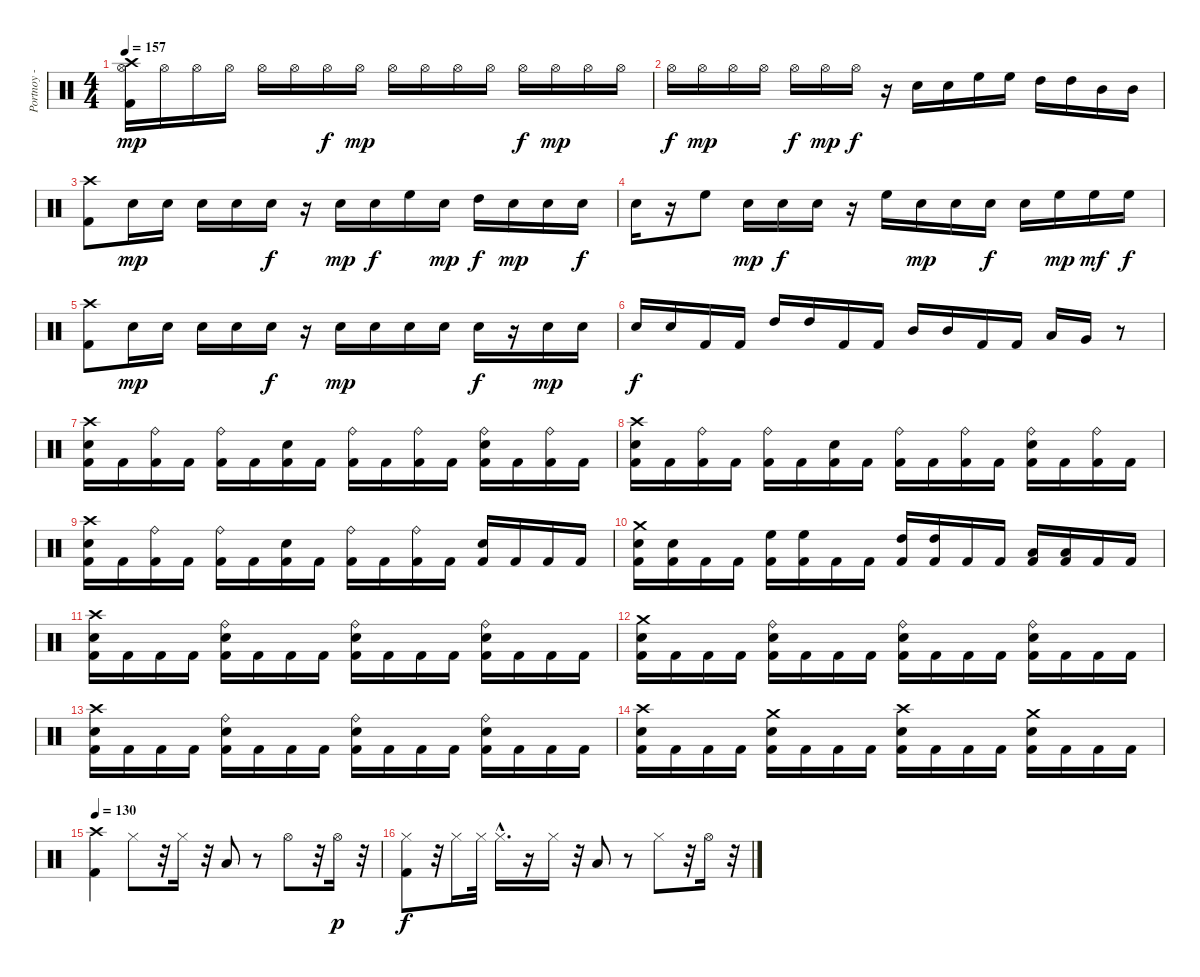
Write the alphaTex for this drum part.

\track ("Portnoy - Drums" "Portnoy - ") {instrument percussion}
\staff {score}
\articulation defaults
\ts (4 4)
\tempo 157
\clef neutral
\ks c
("Hi-Hat (open)" "Crash high (hit)" "Kick (hit) 2").16{dy mp} "Hi-Hat (open)".16 "Hi-Hat (open)".16 "Hi-Hat (open)".16 "Hi-Hat (open)".16 "Hi-Hat (open)".16 "Hi-Hat (open)".16{dy f} "Hi-Hat (open)".16{dy mp} "Hi-Hat (open)".16 "Hi-Hat (open)".16 "Hi-Hat (open)".16 "Hi-Hat (open)".16 "Hi-Hat (open)".16{dy f} "Hi-Hat (open)".16{dy mp} "Hi-Hat (open)".16 "Hi-Hat (open)".16 |
"Hi-Hat (open)".16{dy f} "Hi-Hat (open)".16{dy mp} "Hi-Hat (open)".16 "Hi-Hat (open)".16 "Hi-Hat (open)".16{dy f} "Hi-Hat (open)".16{dy mp} "Hi-Hat (open)".16{dy f} r.16 "Electric Snare (hit)".16 "Electric Snare (hit)".16 "High Floor Tom (hit)".16 "High Floor Tom (hit)".16 "High Tom (hit)".16 "High Tom (hit)".16 "Mid Tom (hit)".16 "Mid Tom (hit)".16 |
("Crash high (hit)" "Kick (hit) 2").8 "Electric Snare (hit)".16{dy mp} "Electric Snare (hit)".16 "Electric Snare (hit)".16 "Electric Snare (hit)".16 "Electric Snare (hit)".16{dy f} r.16 "Electric Snare (hit)".16{dy mp} "Electric Snare (hit)".16{dy f} "High Floor Tom (hit)".16 "Electric Snare (hit)".16{dy mp} "High Tom (hit)".16{dy f} "Electric Snare (hit)".16{dy mp} "Electric Snare (hit)".16 "Electric Snare (hit)".16{dy f} |
"Electric Snare (hit)".16 r.16 "High Floor Tom (hit)".8 "Electric Snare (hit)".16{dy mp} "Electric Snare (hit)".16{dy f} "Electric Snare (hit)".16 r.16 "High Floor Tom (hit)".16 "Electric Snare (hit)".16{dy mp} "Electric Snare (hit)".16 "Electric Snare (hit)".16{dy f} "Electric Snare (hit)".16 "High Floor Tom (hit)".16{dy mp} "High Floor Tom (hit)".16{dy mf} "High Floor Tom (hit)".16{dy f} |
("Kick (hit) 2" "Crash high (hit)").8 "Electric Snare (hit)".16{dy mp} "Electric Snare (hit)".16 "Electric Snare (hit)".16 "Electric Snare (hit)".16 "Electric Snare (hit)".16{dy f} r.16 "Electric Snare (hit)".16{dy mp} "Electric Snare (hit)".16 "Electric Snare (hit)".16 "Electric Snare (hit)".16 "Electric Snare (hit)".16{dy f} r.16 "Electric Snare (hit)".16{dy mp} "Electric Snare (hit)".16 |
"Electric Snare (hit)".16{dy f} "Electric Snare (hit)".16 "Kick (hit) 2".16 "Kick (hit) 2".16 "High Tom (hit)".16 "High Tom (hit)".16 "Kick (hit) 2".16 "Kick (hit) 2".16 "Mid Tom (hit)".16 "Mid Tom (hit)".16 "Kick (hit) 2".16 "Kick (hit) 2".16 "Low Tom (hit)".16 "Very Low Tom (hit)".16 r.8 |
("Crash high (hit)" "Electric Snare (hit)" "Kick (hit) 2").16 "Kick (hit) 2".16 ("Kick (hit) 2" "Ride (bell)").16 "Kick (hit) 2".16 ("Kick (hit) 2" "Ride (bell)").16 "Kick (hit) 2".16 ("Kick (hit) 2" "Electric Snare (hit)").16 "Kick (hit) 2".16 ("Kick (hit) 2" "Ride (bell)").16 "Kick (hit) 2".16 ("Kick (hit) 2" "Ride (bell)").16 "Kick (hit) 2".16 ("Kick (hit) 2" "Electric Snare (hit)" "Ride (bell)").16 "Kick (hit) 2".16 ("Kick (hit) 2" "Ride (bell)").16 "Kick (hit) 2".16 |
("Kick (hit) 2" "Electric Snare (hit)" "Crash high (hit)").16 "Kick (hit) 2".16 ("Kick (hit) 2" "Ride (bell)").16 "Kick (hit) 2".16 ("Kick (hit) 2" "Ride (bell)").16 "Kick (hit) 2".16 ("Kick (hit) 2" "Electric Snare (hit)").16 "Kick (hit) 2".16 ("Kick (hit) 2" "Ride (bell)").16 "Kick (hit) 2".16 ("Kick (hit) 2" "Ride (bell)").16 "Kick (hit) 2".16 ("Kick (hit) 2" "Electric Snare (hit)" "Ride (bell)").16 "Kick (hit) 2".16 ("Kick (hit) 2" "Ride (bell)").16 "Kick (hit) 2".16 |
("Kick (hit) 2" "Electric Snare (hit)" "Crash high (hit)").16 "Kick (hit) 2".16 ("Kick (hit) 2" "Ride (bell)").16 "Kick (hit) 2".16 ("Kick (hit) 2" "Ride (bell)").16 "Kick (hit) 2".16 ("Kick (hit) 2" "Electric Snare (hit)").16 "Kick (hit) 2".16 ("Kick (hit) 2" "Ride (bell)").16 "Kick (hit) 2".16 ("Kick (hit) 2" "Ride (bell)").16 "Kick (hit) 2".16 ("Kick (hit) 2" "Electric Snare (hit)").16 "Kick (hit) 2".16 "Kick (hit) 2".16 "Kick (hit) 2".16 |
("Kick (hit) 2" "Crash medium (hit)" "Electric Snare (hit)").16 ("Kick (hit) 2" "Electric Snare (hit)").16 "Kick (hit) 2".16 "Kick (hit) 2".16 ("Kick (hit) 2" "High Floor Tom (hit)").16 ("Kick (hit) 2" "High Floor Tom (hit)").16 "Kick (hit) 2".16 "Kick (hit) 2".16 ("Kick (hit) 2" "High Tom (hit)").16 ("Kick (hit) 2" "High Tom (hit)").16 "Kick (hit) 2".16 "Kick (hit) 2".16 ("Kick (hit) 2" "Low Tom (hit)").16 ("Kick (hit) 2" "Low Tom (hit)").16 "Kick (hit) 2".16 "Kick (hit) 2".16 |
("Kick (hit) 2" "Crash high (hit)" "Electric Snare (hit)").16 "Kick (hit) 2".16 "Kick (hit) 2".16 "Kick (hit) 2".16 ("Kick (hit) 2" "Electric Snare (hit)" "Ride (bell)").16 "Kick (hit) 2".16 "Kick (hit) 2".16 "Kick (hit) 2".16 ("Kick (hit) 2" "Electric Snare (hit)" "Ride (bell)").16 "Kick (hit) 2".16 "Kick (hit) 2".16 "Kick (hit) 2".16 ("Kick (hit) 2" "Electric Snare (hit)" "Ride (bell)").16 "Kick (hit) 2".16 "Kick (hit) 2".16 "Kick (hit) 2".16 |
("Kick (hit) 2" "Electric Snare (hit)" "Crash medium (hit)").16 "Kick (hit) 2".16 "Kick (hit) 2".16 "Kick (hit) 2".16 ("Kick (hit) 2" "Electric Snare (hit)" "Ride (bell)").16 "Kick (hit) 2".16 "Kick (hit) 2".16 "Kick (hit) 2".16 ("Kick (hit) 2" "Electric Snare (hit)" "Ride (bell)").16 "Kick (hit) 2".16 "Kick (hit) 2".16 "Kick (hit) 2".16 ("Kick (hit) 2" "Electric Snare (hit)" "Ride (bell)").16 "Kick (hit) 2".16 "Kick (hit) 2".16 "Kick (hit) 2".16 |
("Kick (hit) 2" "Electric Snare (hit)" "Crash high (hit)").16 "Kick (hit) 2".16 "Kick (hit) 2".16 "Kick (hit) 2".16 ("Kick (hit) 2" "Electric Snare (hit)" "Ride (bell)").16 "Kick (hit) 2".16 "Kick (hit) 2".16 "Kick (hit) 2".16 ("Kick (hit) 2" "Electric Snare (hit)" "Ride (bell)").16 "Kick (hit) 2".16 "Kick (hit) 2".16 "Kick (hit) 2".16 ("Kick (hit) 2" "Electric Snare (hit)" "Ride (bell)").16 "Kick (hit) 2".16 "Kick (hit) 2".16 "Kick (hit) 2".16 |
("Kick (hit) 2" "Electric Snare (hit)" "Crash high (hit)").16 "Kick (hit) 2".16 "Kick (hit) 2".16 "Kick (hit) 2".16 ("Kick (hit) 2" "Electric Snare (hit)" "Crash medium (hit)").16 "Kick (hit) 2".16 "Kick (hit) 2".16 "Kick (hit) 2".16 ("Kick (hit) 2" "Electric Snare (hit)" "Crash high (hit)").16 "Kick (hit) 2".16 "Kick (hit) 2".16 "Kick (hit) 2".16 ("Kick (hit) 2" "Electric Snare (hit)" "Crash medium (hit)").16 "Kick (hit) 2".16 "Kick (hit) 2".16 "Kick (hit) 2".16 |
\tempo 130
("Kick (hit) 2" "Crash high (hit)").4 "Hi-Hat (closed)".8 r.32 "Hi-Hat (closed)".16 r.32 "Low Tom (hit)".8 r.8 "Hi-Hat (open)".8 r.32 "Hi-Hat (open)".16{dy p} r.32 |
("Kick (hit) 2" "Hi-Hat (closed)").8{dy f} r.32 "Hi-Hat (closed)".16 "Hi-Hat (closed)".32 "Hi-Hat (closed)"{hac}.16{d} r.16 "Hi-Hat (closed)".16 r.32 "Low Tom (hit)".8 r.8 "Hi-Hat (closed)".8 r.32 "Hi-Hat (open)".16 r.32
